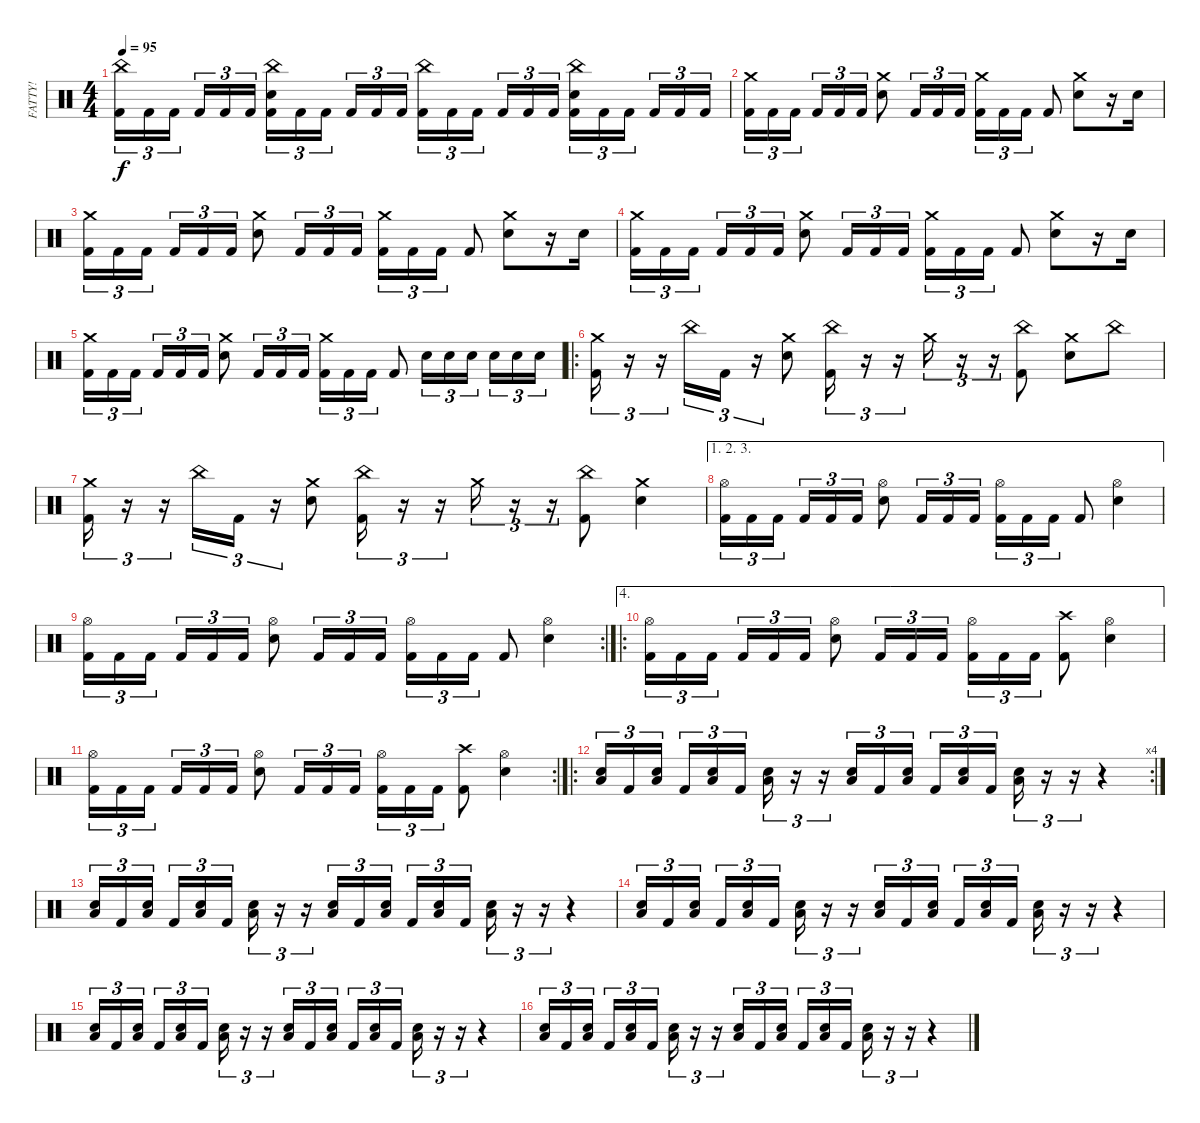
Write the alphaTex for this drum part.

\track ("FATTY!" "FATTY!") {instrument percussion}
\staff {score}
\articulation defaults
\ts (4 4)
\tempo 95
\clef neutral
\ks c
("China (hit)" "Kick (hit) 2").16{tu (3 2) dy f} "Kick (hit) 2".16{tu (3 2)} "Kick (hit) 2".16{tu (3 2) beam splitsecondary} "Kick (hit) 2".16{tu (3 2)} "Kick (hit) 2".16{tu (3 2)} "Kick (hit) 2".16{tu (3 2)} ("China (hit)" "Electric Snare (hit)" "Kick (hit) 2").16{tu (3 2)} "Kick (hit) 2".16{tu (3 2)} "Kick (hit) 2".16{tu (3 2) beam splitsecondary} "Kick (hit) 2".16{tu (3 2)} "Kick (hit) 2".16{tu (3 2)} "Kick (hit) 2".16{tu (3 2)} ("China (hit)" "Kick (hit) 2").16{tu (3 2)} "Kick (hit) 2".16{tu (3 2)} "Kick (hit) 2".16{tu (3 2) beam splitsecondary} "Kick (hit) 2".16{tu (3 2)} "Kick (hit) 2".16{tu (3 2)} "Kick (hit) 2".16{tu (3 2)} ("China (hit)" "Electric Snare (hit)" "Kick (hit) 2").16{tu (3 2)} "Kick (hit) 2".16{tu (3 2)} "Kick (hit) 2".16{tu (3 2) beam splitsecondary} "Kick (hit) 2".16{tu (3 2)} "Kick (hit) 2".16{tu (3 2)} "Kick (hit) 2".16{tu (3 2)} |
("Crash medium (hit)" "Kick (hit) 2").16{tu (3 2)} "Kick (hit) 2".16{tu (3 2)} "Kick (hit) 2".16{tu (3 2) beam splitsecondary} "Kick (hit) 2".16{tu (3 2)} "Kick (hit) 2".16{tu (3 2)} "Kick (hit) 2".16{tu (3 2)} ("Crash medium (hit)" "Electric Snare (hit)").8 "Kick (hit) 2".16{tu (3 2)} "Kick (hit) 2".16{tu (3 2)} "Kick (hit) 2".16{tu (3 2)} ("Crash medium (hit)" "Kick (hit) 2").16{tu (3 2)} "Kick (hit) 2".16{tu (3 2)} "Kick (hit) 2".16{tu (3 2)} "Kick (hit) 2".8 ("Crash medium (hit)" "Electric Snare (hit)").8 r.16 "Electric Snare (hit)".16 |
("Crash medium (hit)" "Kick (hit) 2").16{tu (3 2)} "Kick (hit) 2".16{tu (3 2)} "Kick (hit) 2".16{tu (3 2) beam splitsecondary} "Kick (hit) 2".16{tu (3 2)} "Kick (hit) 2".16{tu (3 2)} "Kick (hit) 2".16{tu (3 2)} ("Crash medium (hit)" "Electric Snare (hit)").8 "Kick (hit) 2".16{tu (3 2)} "Kick (hit) 2".16{tu (3 2)} "Kick (hit) 2".16{tu (3 2)} ("Crash medium (hit)" "Kick (hit) 2").16{tu (3 2)} "Kick (hit) 2".16{tu (3 2)} "Kick (hit) 2".16{tu (3 2)} "Kick (hit) 2".8 ("Crash medium (hit)" "Electric Snare (hit)").8 r.16 "Electric Snare (hit)".16 |
("Crash medium (hit)" "Kick (hit) 2").16{tu (3 2)} "Kick (hit) 2".16{tu (3 2)} "Kick (hit) 2".16{tu (3 2) beam splitsecondary} "Kick (hit) 2".16{tu (3 2)} "Kick (hit) 2".16{tu (3 2)} "Kick (hit) 2".16{tu (3 2)} ("Crash medium (hit)" "Electric Snare (hit)").8 "Kick (hit) 2".16{tu (3 2)} "Kick (hit) 2".16{tu (3 2)} "Kick (hit) 2".16{tu (3 2)} ("Crash medium (hit)" "Kick (hit) 2").16{tu (3 2)} "Kick (hit) 2".16{tu (3 2)} "Kick (hit) 2".16{tu (3 2)} "Kick (hit) 2".8 ("Crash medium (hit)" "Electric Snare (hit)").8 r.16 "Electric Snare (hit)".16 |
("Crash medium (hit)" "Kick (hit) 2").16{tu (3 2)} "Kick (hit) 2".16{tu (3 2)} "Kick (hit) 2".16{tu (3 2) beam splitsecondary} "Kick (hit) 2".16{tu (3 2)} "Kick (hit) 2".16{tu (3 2)} "Kick (hit) 2".16{tu (3 2)} ("Crash medium (hit)" "Electric Snare (hit)").8 "Kick (hit) 2".16{tu (3 2)} "Kick (hit) 2".16{tu (3 2)} "Kick (hit) 2".16{tu (3 2)} ("Crash medium (hit)" "Kick (hit) 2").16{tu (3 2)} "Kick (hit) 2".16{tu (3 2)} "Kick (hit) 2".16{tu (3 2)} "Kick (hit) 2".8 "Electric Snare (hit)".16{tu (3 2)} "Electric Snare (hit)".16{tu (3 2)} "Electric Snare (hit)".16{tu (3 2) beam splitsecondary} "Electric Snare (hit)".16{tu (3 2)} "Electric Snare (hit)".16{tu (3 2)} "Electric Snare (hit)".16{tu (3 2)} |
\ro
("Crash medium (hit)" "Kick (hit) 2").16{tu (3 2)} r.16{tu (3 2)} r.16{tu (3 2)} "China (hit)".16{tu (3 2)} "Kick (hit) 2".16{tu (3 2)} r.16{tu (3 2)} ("Crash medium (hit)" "Electric Snare (hit)").8 ("China (hit)" "Kick (hit) 2").16{tu (3 2)} r.16{tu (3 2)} r.16{tu (3 2)} "Crash medium (hit)".16{tu (3 2)} r.16{tu (3 2)} r.16{tu (3 2)} ("China (hit)" "Kick (hit) 2").8 ("Crash medium (hit)" "Electric Snare (hit)").8 "China (hit)".8 |
("Crash medium (hit)" "Kick (hit) 2").16{tu (3 2)} r.16{tu (3 2)} r.16{tu (3 2)} "China (hit)".16{tu (3 2)} "Kick (hit) 2".16{tu (3 2)} r.16{tu (3 2)} ("Crash medium (hit)" "Electric Snare (hit)").8 ("China (hit)" "Kick (hit) 2").16{tu (3 2)} r.16{tu (3 2)} r.16{tu (3 2)} "Crash medium (hit)".16{tu (3 2)} r.16{tu (3 2)} r.16{tu (3 2)} ("China (hit)" "Kick (hit) 2").8 ("Crash medium (hit)" "Electric Snare (hit)").4 |
\ae (1 2 3)
("Hi-Hat (open)" "Kick (hit) 2").16{tu (3 2)} "Kick (hit) 2".16{tu (3 2)} "Kick (hit) 2".16{tu (3 2) beam splitsecondary} "Kick (hit) 2".16{tu (3 2)} "Kick (hit) 2".16{tu (3 2)} "Kick (hit) 2".16{tu (3 2)} ("Hi-Hat (open)" "Electric Snare (hit)").8 "Kick (hit) 2".16{tu (3 2)} "Kick (hit) 2".16{tu (3 2)} "Kick (hit) 2".16{tu (3 2)} ("Hi-Hat (open)" "Kick (hit) 2").16{tu (3 2)} "Kick (hit) 2".16{tu (3 2)} "Kick (hit) 2".16{tu (3 2)} "Kick (hit) 2".8 ("Hi-Hat (open)" "Electric Snare (hit)").4 |
\rc 2
("Hi-Hat (open)" "Kick (hit) 2").16{tu (3 2)} "Kick (hit) 2".16{tu (3 2)} "Kick (hit) 2".16{tu (3 2) beam splitsecondary} "Kick (hit) 2".16{tu (3 2)} "Kick (hit) 2".16{tu (3 2)} "Kick (hit) 2".16{tu (3 2)} ("Hi-Hat (open)" "Electric Snare (hit)").8 "Kick (hit) 2".16{tu (3 2)} "Kick (hit) 2".16{tu (3 2)} "Kick (hit) 2".16{tu (3 2)} ("Hi-Hat (open)" "Kick (hit) 2").16{tu (3 2)} "Kick (hit) 2".16{tu (3 2)} "Kick (hit) 2".16{tu (3 2)} "Kick (hit) 2".8 ("Hi-Hat (open)" "Electric Snare (hit)").4 |
\ae 4
\ro
("Hi-Hat (open)" "Kick (hit) 2").16{tu (3 2)} "Kick (hit) 2".16{tu (3 2)} "Kick (hit) 2".16{tu (3 2) beam splitsecondary} "Kick (hit) 2".16{tu (3 2)} "Kick (hit) 2".16{tu (3 2)} "Kick (hit) 2".16{tu (3 2)} ("Hi-Hat (open)" "Electric Snare (hit)").8 "Kick (hit) 2".16{tu (3 2)} "Kick (hit) 2".16{tu (3 2)} "Kick (hit) 2".16{tu (3 2)} ("Hi-Hat (open)" "Kick (hit) 2").16{tu (3 2)} "Kick (hit) 2".16{tu (3 2)} "Kick (hit) 2".16{tu (3 2)} ("Crash high (hit)" "Kick (hit) 2").8 ("Hi-Hat (open)" "Electric Snare (hit)").4 |
\rc 2
("Hi-Hat (open)" "Kick (hit) 2").16{tu (3 2)} "Kick (hit) 2".16{tu (3 2)} "Kick (hit) 2".16{tu (3 2) beam splitsecondary} "Kick (hit) 2".16{tu (3 2)} "Kick (hit) 2".16{tu (3 2)} "Kick (hit) 2".16{tu (3 2)} ("Hi-Hat (open)" "Electric Snare (hit)").8 "Kick (hit) 2".16{tu (3 2)} "Kick (hit) 2".16{tu (3 2)} "Kick (hit) 2".16{tu (3 2)} ("Hi-Hat (open)" "Kick (hit) 2").16{tu (3 2)} "Kick (hit) 2".16{tu (3 2)} "Kick (hit) 2".16{tu (3 2)} ("Crash high (hit)" "Kick (hit) 2").8 ("Hi-Hat (open)" "Electric Snare (hit)").4 |
\ro
\rc 4
("Electric Snare (hit)" "Low Tom (hit)").16{tu (3 2)} "Kick (hit) 2".16{tu (3 2)} ("Electric Snare (hit)" "Low Tom (hit)").16{tu (3 2) beam splitsecondary} "Kick (hit) 2".16{tu (3 2)} ("Electric Snare (hit)" "Low Tom (hit)").16{tu (3 2)} "Kick (hit) 2".16{tu (3 2)} ("Electric Snare (hit)" "Low Tom (hit)").16{tu (3 2)} r.16{tu (3 2)} r.16{tu (3 2)} ("Low Tom (hit)" "Electric Snare (hit)").16{tu (3 2)} "Kick (hit) 2".16{tu (3 2)} ("Low Tom (hit)" "Electric Snare (hit)").16{tu (3 2)} "Kick (hit) 2".16{tu (3 2)} ("Low Tom (hit)" "Electric Snare (hit)").16{tu (3 2)} "Kick (hit) 2".16{tu (3 2) beam splitsecondary} ("Low Tom (hit)" "Electric Snare (hit)").16{tu (3 2)} r.16{tu (3 2)} r.16{tu (3 2)} r.4 |
("Electric Snare (hit)" "Low Tom (hit)").16{tu (3 2)} "Kick (hit) 2".16{tu (3 2)} ("Electric Snare (hit)" "Low Tom (hit)").16{tu (3 2) beam splitsecondary} "Kick (hit) 2".16{tu (3 2)} ("Electric Snare (hit)" "Low Tom (hit)").16{tu (3 2)} "Kick (hit) 2".16{tu (3 2)} ("Electric Snare (hit)" "Low Tom (hit)").16{tu (3 2)} r.16{tu (3 2)} r.16{tu (3 2)} ("Low Tom (hit)" "Electric Snare (hit)").16{tu (3 2)} "Kick (hit) 2".16{tu (3 2)} ("Low Tom (hit)" "Electric Snare (hit)").16{tu (3 2)} "Kick (hit) 2".16{tu (3 2)} ("Low Tom (hit)" "Electric Snare (hit)").16{tu (3 2)} "Kick (hit) 2".16{tu (3 2) beam splitsecondary} ("Low Tom (hit)" "Electric Snare (hit)").16{tu (3 2)} r.16{tu (3 2)} r.16{tu (3 2)} r.4 |
("Electric Snare (hit)" "Low Tom (hit)").16{tu (3 2)} "Kick (hit) 2".16{tu (3 2)} ("Electric Snare (hit)" "Low Tom (hit)").16{tu (3 2) beam splitsecondary} "Kick (hit) 2".16{tu (3 2)} ("Electric Snare (hit)" "Low Tom (hit)").16{tu (3 2)} "Kick (hit) 2".16{tu (3 2)} ("Electric Snare (hit)" "Low Tom (hit)").16{tu (3 2)} r.16{tu (3 2)} r.16{tu (3 2)} ("Low Tom (hit)" "Electric Snare (hit)").16{tu (3 2)} "Kick (hit) 2".16{tu (3 2)} ("Low Tom (hit)" "Electric Snare (hit)").16{tu (3 2)} "Kick (hit) 2".16{tu (3 2)} ("Low Tom (hit)" "Electric Snare (hit)").16{tu (3 2)} "Kick (hit) 2".16{tu (3 2) beam splitsecondary} ("Low Tom (hit)" "Electric Snare (hit)").16{tu (3 2)} r.16{tu (3 2)} r.16{tu (3 2)} r.4 |
("Electric Snare (hit)" "Low Tom (hit)").16{tu (3 2)} "Kick (hit) 2".16{tu (3 2)} ("Electric Snare (hit)" "Low Tom (hit)").16{tu (3 2) beam splitsecondary} "Kick (hit) 2".16{tu (3 2)} ("Electric Snare (hit)" "Low Tom (hit)").16{tu (3 2)} "Kick (hit) 2".16{tu (3 2)} ("Electric Snare (hit)" "Low Tom (hit)").16{tu (3 2)} r.16{tu (3 2)} r.16{tu (3 2)} ("Low Tom (hit)" "Electric Snare (hit)").16{tu (3 2)} "Kick (hit) 2".16{tu (3 2)} ("Low Tom (hit)" "Electric Snare (hit)").16{tu (3 2)} "Kick (hit) 2".16{tu (3 2)} ("Low Tom (hit)" "Electric Snare (hit)").16{tu (3 2)} "Kick (hit) 2".16{tu (3 2) beam splitsecondary} ("Low Tom (hit)" "Electric Snare (hit)").16{tu (3 2)} r.16{tu (3 2)} r.16{tu (3 2)} r.4 |
("Electric Snare (hit)" "Low Tom (hit)").16{tu (3 2)} "Kick (hit) 2".16{tu (3 2)} ("Electric Snare (hit)" "Low Tom (hit)").16{tu (3 2) beam splitsecondary} "Kick (hit) 2".16{tu (3 2)} ("Electric Snare (hit)" "Low Tom (hit)").16{tu (3 2)} "Kick (hit) 2".16{tu (3 2)} ("Electric Snare (hit)" "Low Tom (hit)").16{tu (3 2)} r.16{tu (3 2)} r.16{tu (3 2)} ("Low Tom (hit)" "Electric Snare (hit)").16{tu (3 2)} "Kick (hit) 2".16{tu (3 2)} ("Low Tom (hit)" "Electric Snare (hit)").16{tu (3 2)} "Kick (hit) 2".16{tu (3 2)} ("Low Tom (hit)" "Electric Snare (hit)").16{tu (3 2)} "Kick (hit) 2".16{tu (3 2) beam splitsecondary} ("Low Tom (hit)" "Electric Snare (hit)").16{tu (3 2)} r.16{tu (3 2)} r.16{tu (3 2)} r.4
